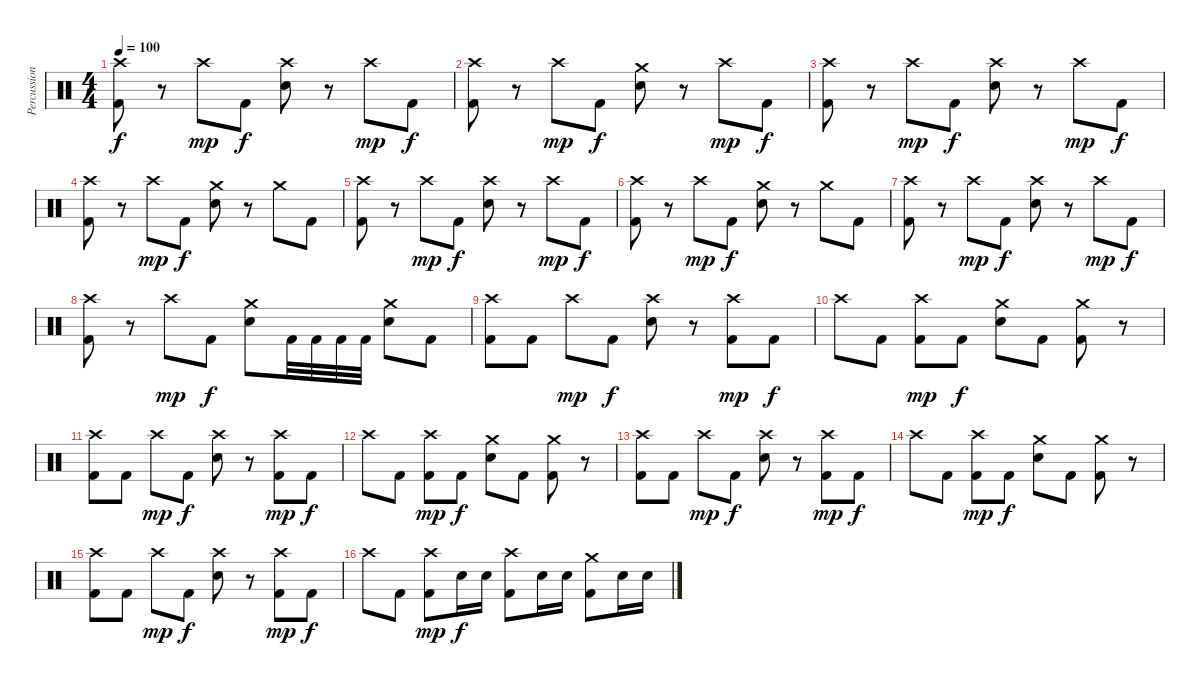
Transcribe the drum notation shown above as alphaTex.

\track ("Percussion" "Percussion") {instrument percussion}
\staff {score}
\articulation defaults
\ts (4 4)
\tempo 100
\clef neutral
\ks c
("Crash high (hit)" "Kick (hit) 2").8{dy f} r.8 "Crash high (hit)".8{dy mp} "Kick (hit) 2".8{dy f} ("Crash high (hit)" "Electric Snare (hit)").8 r.8 "Crash high (hit)".8{dy mp} "Kick (hit) 2".8{dy f} |
("Crash high (hit)" "Kick (hit) 2").8 r.8 "Crash high (hit)".8{dy mp} "Kick (hit) 2".8{dy f} ("Crash medium (hit)" "Electric Snare (hit)").8 r.8 "Crash high (hit)".8{dy mp} "Kick (hit) 2".8{dy f} |
("Crash high (hit)" "Kick (hit) 2").8 r.8 "Crash high (hit)".8{dy mp} "Kick (hit) 2".8{dy f} ("Crash high (hit)" "Electric Snare (hit)").8 r.8 "Crash high (hit)".8{dy mp} "Kick (hit) 2".8{dy f} |
("Crash high (hit)" "Kick (hit) 2").8 r.8 "Crash high (hit)".8{dy mp} "Kick (hit) 2".8{dy f} ("Crash medium (hit)" "Electric Snare (hit)").8 r.8 "Crash medium (hit)".8 "Kick (hit) 2".8 |
("Crash high (hit)" "Kick (hit) 2").8 r.8 "Crash high (hit)".8{dy mp} "Kick (hit) 2".8{dy f} ("Crash high (hit)" "Electric Snare (hit)").8 r.8 "Crash high (hit)".8{dy mp} "Kick (hit) 2".8{dy f} |
("Crash high (hit)" "Kick (hit) 2").8 r.8 "Crash high (hit)".8{dy mp} "Kick (hit) 2".8{dy f} ("Crash medium (hit)" "Electric Snare (hit)").8 r.8 "Crash medium (hit)".8 "Kick (hit) 2".8 |
("Crash high (hit)" "Kick (hit) 2").8 r.8 "Crash high (hit)".8{dy mp} "Kick (hit) 2".8{dy f} ("Crash high (hit)" "Electric Snare (hit)").8 r.8 "Crash high (hit)".8{dy mp} "Kick (hit) 2".8{dy f} |
("Crash high (hit)" "Kick (hit) 2").8 r.8 "Crash high (hit)".8{dy mp} "Kick (hit) 2".8{dy f} ("Crash medium (hit)" "Electric Snare (hit)").8 "Kick (hit) 2".32 "Kick (hit) 2".32 "Kick (hit) 2".32 "Kick (hit) 2".32 ("Crash medium (hit)" "Electric Snare (hit)").8 "Kick (hit) 2".8 |
("Crash high (hit)" "Kick (hit) 2").8 "Kick (hit) 2".8 "Crash high (hit)".8{dy mp} "Kick (hit) 2".8{dy f} ("Crash high (hit)" "Electric Snare (hit)").8 r.8 ("Crash high (hit)" "Kick (hit) 2").8{dy mp} "Kick (hit) 2".8{dy f} |
"Crash high (hit)".8 "Kick (hit) 2".8 ("Crash high (hit)" "Kick (hit) 2").8{dy mp} "Kick (hit) 2".8{dy f} ("Crash medium (hit)" "Electric Snare (hit)").8 "Kick (hit) 2".8 ("Crash medium (hit)" "Kick (hit) 2").8 r.8 |
("Crash high (hit)" "Kick (hit) 2").8 "Kick (hit) 2".8 "Crash high (hit)".8{dy mp} "Kick (hit) 2".8{dy f} ("Crash high (hit)" "Electric Snare (hit)").8 r.8 ("Crash high (hit)" "Kick (hit) 2").8{dy mp} "Kick (hit) 2".8{dy f} |
"Crash high (hit)".8 "Kick (hit) 2".8 ("Crash high (hit)" "Kick (hit) 2").8{dy mp} "Kick (hit) 2".8{dy f} ("Crash medium (hit)" "Electric Snare (hit)").8 "Kick (hit) 2".8 ("Crash medium (hit)" "Kick (hit) 2").8 r.8 |
("Crash high (hit)" "Kick (hit) 2").8 "Kick (hit) 2".8 "Crash high (hit)".8{dy mp} "Kick (hit) 2".8{dy f} ("Crash high (hit)" "Electric Snare (hit)").8 r.8 ("Crash high (hit)" "Kick (hit) 2").8{dy mp} "Kick (hit) 2".8{dy f} |
"Crash high (hit)".8 "Kick (hit) 2".8 ("Crash high (hit)" "Kick (hit) 2").8{dy mp} "Kick (hit) 2".8{dy f} ("Crash medium (hit)" "Electric Snare (hit)").8 "Kick (hit) 2".8 ("Crash medium (hit)" "Kick (hit) 2").8 r.8 |
("Crash high (hit)" "Kick (hit) 2").8 "Kick (hit) 2".8 "Crash high (hit)".8{dy mp} "Kick (hit) 2".8{dy f} ("Crash high (hit)" "Electric Snare (hit)").8 r.8 ("Crash high (hit)" "Kick (hit) 2").8{dy mp} "Kick (hit) 2".8{dy f} |
"Crash high (hit)".8 "Kick (hit) 2".8 ("Crash high (hit)" "Kick (hit) 2").8{dy mp} "Electric Snare (hit)".16{dy f} "Electric Snare (hit)".16 ("Crash high (hit)" "Kick (hit) 2").8 "Electric Snare (hit)".16 "Electric Snare (hit)".16 ("Crash medium (hit)" "Kick (hit) 2").8 "Electric Snare (hit)".16 "Electric Snare (hit)".16
